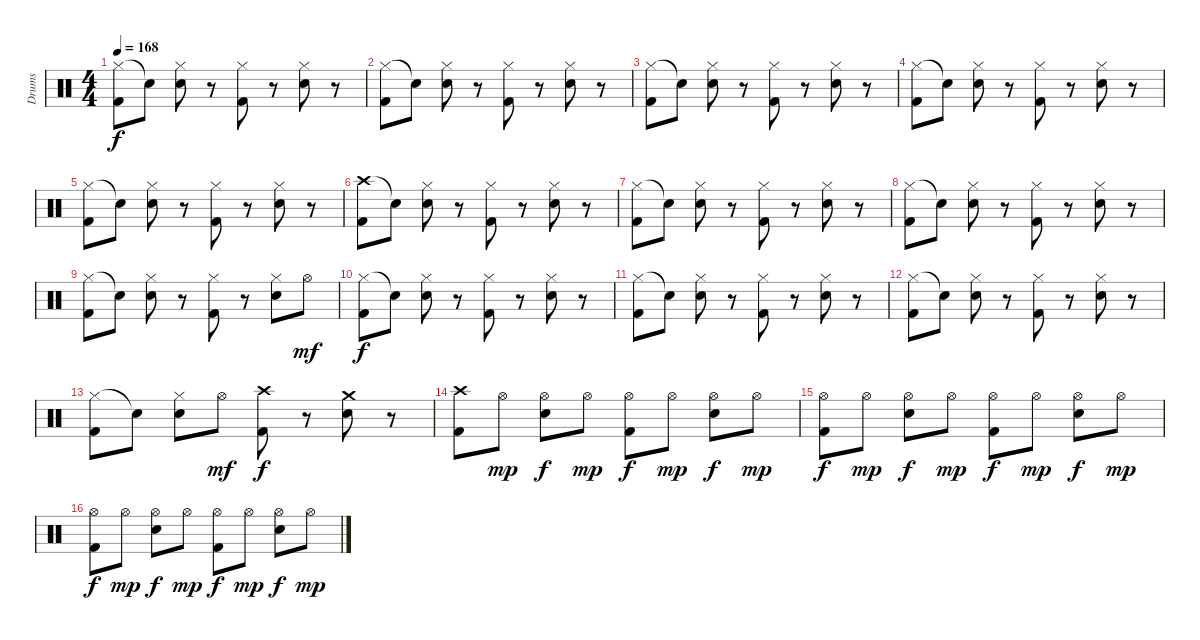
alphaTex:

\track ("Drums" "Drums") {instrument percussion}
\staff {score}
\articulation defaults
\ts (4 4)
\tempo 168
\clef neutral
\ks c
("Hi-Hat (closed)" "Kick (hit) 2").8{dy f} "Snare (hit)"{t}.8 ("Hi-Hat (closed)" "Electric Snare (hit)").8 r.8 ("Hi-Hat (closed)" "Kick (hit) 2").8 r.8 ("Hi-Hat (closed)" "Electric Snare (hit)").8 r.8 |
("Hi-Hat (closed)" "Kick (hit) 2").8 "Snare (hit)"{t}.8 ("Hi-Hat (closed)" "Electric Snare (hit)").8 r.8 ("Hi-Hat (closed)" "Kick (hit) 2").8 r.8 ("Hi-Hat (closed)" "Electric Snare (hit)").8 r.8 |
("Hi-Hat (closed)" "Kick (hit) 2").8 "Snare (hit)"{t}.8 ("Hi-Hat (closed)" "Electric Snare (hit)").8 r.8 ("Hi-Hat (closed)" "Kick (hit) 2").8 r.8 ("Hi-Hat (closed)" "Electric Snare (hit)").8 r.8 |
("Hi-Hat (closed)" "Kick (hit) 2").8 "Snare (hit)"{t}.8 ("Hi-Hat (closed)" "Electric Snare (hit)").8 r.8 ("Hi-Hat (closed)" "Kick (hit) 2").8 r.8 ("Hi-Hat (closed)" "Electric Snare (hit)").8 r.8 |
("Hi-Hat (closed)" "Kick (hit) 2").8 "Snare (hit)"{t}.8 ("Hi-Hat (closed)" "Electric Snare (hit)").8 r.8 ("Hi-Hat (closed)" "Kick (hit) 2").8 r.8 ("Hi-Hat (closed)" "Electric Snare (hit)").8 r.8 |
("Crash high (hit)" "Kick (hit) 2").8 "Snare (hit)"{t}.8 ("Hi-Hat (closed)" "Electric Snare (hit)").8 r.8 ("Hi-Hat (closed)" "Kick (hit) 2").8 r.8 ("Hi-Hat (closed)" "Electric Snare (hit)").8 r.8 |
("Hi-Hat (closed)" "Kick (hit) 2").8 "Snare (hit)"{t}.8 ("Hi-Hat (closed)" "Electric Snare (hit)").8 r.8 ("Hi-Hat (closed)" "Kick (hit) 2").8 r.8 ("Hi-Hat (closed)" "Electric Snare (hit)").8 r.8 |
("Hi-Hat (closed)" "Kick (hit) 2").8 "Snare (hit)"{t}.8 ("Hi-Hat (closed)" "Electric Snare (hit)").8 r.8 ("Hi-Hat (closed)" "Kick (hit) 2").8 r.8 ("Hi-Hat (closed)" "Electric Snare (hit)").8 r.8 |
("Hi-Hat (closed)" "Kick (hit) 2").8 "Snare (hit)"{t}.8 ("Hi-Hat (closed)" "Electric Snare (hit)").8 r.8 ("Hi-Hat (closed)" "Kick (hit) 2").8 r.8 ("Hi-Hat (closed)" "Electric Snare (hit)").8 "Hi-Hat (open)".8{dy mf} |
("Hi-Hat (closed)" "Kick (hit) 2").8{dy f} "Snare (hit)"{t}.8 ("Hi-Hat (closed)" "Electric Snare (hit)").8 r.8 ("Hi-Hat (closed)" "Kick (hit) 2").8 r.8 ("Hi-Hat (closed)" "Electric Snare (hit)").8 r.8 |
("Hi-Hat (closed)" "Kick (hit) 2").8 "Snare (hit)"{t}.8 ("Hi-Hat (closed)" "Electric Snare (hit)").8 r.8 ("Hi-Hat (closed)" "Kick (hit) 2").8 r.8 ("Hi-Hat (closed)" "Electric Snare (hit)").8 r.8 |
("Hi-Hat (closed)" "Kick (hit) 2").8 "Snare (hit)"{t}.8 ("Hi-Hat (closed)" "Electric Snare (hit)").8 r.8 ("Hi-Hat (closed)" "Kick (hit) 2").8 r.8 ("Hi-Hat (closed)" "Electric Snare (hit)").8 r.8 |
("Hi-Hat (closed)" "Kick (hit) 2").8 "Snare (hit)"{t}.8 ("Hi-Hat (closed)" "Electric Snare (hit)").8 "Hi-Hat (open)".8{dy mf} ("Crash high (hit)" "Kick (hit) 2").8{dy f} r.8 ("Crash medium (hit)" "Electric Snare (hit)").8 r.8 |
("Crash high (hit)" "Kick (hit) 2").8 "Hi-Hat (open)".8{dy mp} ("Hi-Hat (open)" "Electric Snare (hit)").8{dy f} "Hi-Hat (open)".8{dy mp} ("Hi-Hat (open)" "Kick (hit) 2").8{dy f} "Hi-Hat (open)".8{dy mp} ("Hi-Hat (open)" "Electric Snare (hit)").8{dy f} "Hi-Hat (open)".8{dy mp} |
("Hi-Hat (open)" "Kick (hit) 2").8{dy f} "Hi-Hat (open)".8{dy mp} ("Hi-Hat (open)" "Electric Snare (hit)").8{dy f} "Hi-Hat (open)".8{dy mp} ("Hi-Hat (open)" "Kick (hit) 2").8{dy f} "Hi-Hat (open)".8{dy mp} ("Hi-Hat (open)" "Electric Snare (hit)").8{dy f} "Hi-Hat (open)".8{dy mp} |
("Hi-Hat (open)" "Kick (hit) 2").8{dy f} "Hi-Hat (open)".8{dy mp} ("Hi-Hat (open)" "Electric Snare (hit)").8{dy f} "Hi-Hat (open)".8{dy mp} ("Hi-Hat (open)" "Kick (hit) 2").8{dy f} "Hi-Hat (open)".8{dy mp} ("Hi-Hat (open)" "Electric Snare (hit)").8{dy f} "Hi-Hat (open)".8{dy mp}
